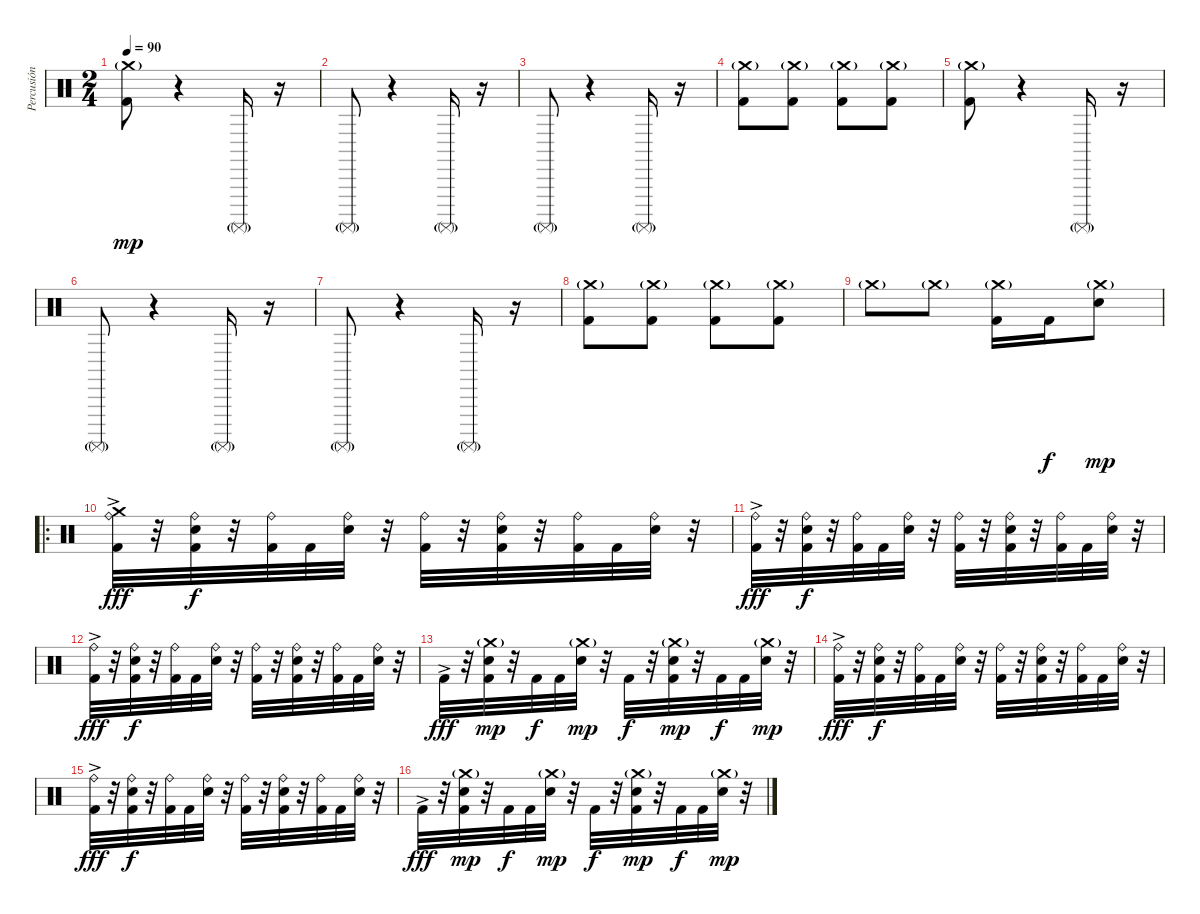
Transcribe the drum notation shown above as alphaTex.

\track ("Percusión" "Percusión") {instrument percussion}
\staff {score}
\articulation defaults
\ts (2 4)
\tempo 90
\clef neutral
\ks c
("Kick (hit) 2" "Crash medium (hit)"{g}).8{dy mp} r.4 "Surdo (mute)"{g}.16 r.16 |
"Surdo (mute)"{g}.8 r.4 "Surdo (mute)"{g}.16 r.16 |
"Surdo (mute)"{g}.8 r.4 "Surdo (mute)"{g}.16 r.16 |
("Crash medium (hit)"{g} "Kick (hit) 2").8 ("Crash medium (hit)"{g} "Kick (hit) 2").8 ("Crash medium (hit)"{g} "Kick (hit) 2").8 ("Crash medium (hit)"{g} "Kick (hit) 2").8 |
("Kick (hit) 2" "Crash medium (hit)"{g}).8 r.4 "Surdo (mute)"{g}.16 r.16 |
"Surdo (mute)"{g}.8 r.4 "Surdo (mute)"{g}.16 r.16 |
"Surdo (mute)"{g}.8 r.4 "Surdo (mute)"{g}.16 r.16 |
("Crash medium (hit)"{g} "Kick (hit) 2").8 ("Crash medium (hit)"{g} "Kick (hit) 2").8 ("Crash medium (hit)"{g} "Kick (hit) 2").8 ("Crash medium (hit)"{g} "Kick (hit) 2").8 |
"Crash medium (hit)"{g}.8 "Crash medium (hit)"{g}.8 ("Crash medium (hit)"{g} "Kick (hit) 2").16 "Kick (hit) 2".16{dy f} ("Crash medium (hit)"{g} "Electric Snare (hit)").8{dy mp} |
\ro
("Kick (hit) 2"{ac} "Crash medium (hit)" "Ride (bell)").32{dy fff} r.32 ("Kick (hit) 2" "Electric Snare (hit)" "Ride (bell)").32{dy f} r.32 ("Kick (hit) 2" "Ride (bell)").32 "Kick (hit) 2".32 ("Electric Snare (hit)" "Ride (bell)").32 r.32 ("Kick (hit) 2" "Ride (bell)").32 r.32 ("Kick (hit) 2" "Electric Snare (hit)" "Ride (bell)").32 r.32 ("Kick (hit) 2" "Ride (bell)").32 "Kick (hit) 2".32 ("Electric Snare (hit)" "Ride (bell)").32 r.32 |
("Kick (hit) 2"{ac} "Ride (bell)").32{dy fff} r.32 ("Kick (hit) 2" "Electric Snare (hit)" "Ride (bell)").32{dy f} r.32 ("Kick (hit) 2" "Ride (bell)").32 "Kick (hit) 2".32 ("Electric Snare (hit)" "Ride (bell)").32 r.32 ("Kick (hit) 2" "Ride (bell)").32 r.32 ("Kick (hit) 2" "Electric Snare (hit)" "Ride (bell)").32 r.32 ("Kick (hit) 2" "Ride (bell)").32 "Kick (hit) 2".32 ("Electric Snare (hit)" "Ride (bell)").32 r.32 |
("Kick (hit) 2"{ac} "Ride (bell)").32{dy fff} r.32 ("Kick (hit) 2" "Electric Snare (hit)" "Ride (bell)").32{dy f} r.32 ("Kick (hit) 2" "Ride (bell)").32 "Kick (hit) 2".32 ("Electric Snare (hit)" "Ride (bell)").32 r.32 ("Kick (hit) 2" "Ride (bell)").32 r.32 ("Kick (hit) 2" "Electric Snare (hit)" "Ride (bell)").32 r.32 ("Kick (hit) 2" "Ride (bell)").32 "Kick (hit) 2".32 ("Electric Snare (hit)" "Ride (bell)").32 r.32 |
"Kick (hit) 2"{ac}.32{dy fff} r.32 ("Kick (hit) 2" "Electric Snare (hit)" "Crash medium (hit)"{g}).32{dy mp} r.32 "Kick (hit) 2".32{dy f} "Kick (hit) 2".32 ("Electric Snare (hit)" "Crash medium (hit)"{g}).32{dy mp} r.32 "Kick (hit) 2".32{dy f} r.32 ("Kick (hit) 2" "Electric Snare (hit)" "Crash medium (hit)"{g}).32{dy mp} r.32 "Kick (hit) 2".32{dy f} "Kick (hit) 2".32 ("Electric Snare (hit)" "Crash medium (hit)"{g}).32{dy mp} r.32 |
("Kick (hit) 2"{ac} "Ride (bell)").32{dy fff} r.32 ("Kick (hit) 2" "Electric Snare (hit)" "Ride (bell)").32{dy f} r.32 ("Kick (hit) 2" "Ride (bell)").32 "Kick (hit) 2".32 ("Electric Snare (hit)" "Ride (bell)").32 r.32 ("Kick (hit) 2" "Ride (bell)").32 r.32 ("Kick (hit) 2" "Electric Snare (hit)" "Ride (bell)").32 r.32 ("Kick (hit) 2" "Ride (bell)").32 "Kick (hit) 2".32 ("Electric Snare (hit)" "Ride (bell)").32 r.32 |
("Kick (hit) 2"{ac} "Ride (bell)").32{dy fff} r.32 ("Kick (hit) 2" "Electric Snare (hit)" "Ride (bell)").32{dy f} r.32 ("Kick (hit) 2" "Ride (bell)").32 "Kick (hit) 2".32 ("Electric Snare (hit)" "Ride (bell)").32 r.32 ("Kick (hit) 2" "Ride (bell)").32 r.32 ("Kick (hit) 2" "Electric Snare (hit)" "Ride (bell)").32 r.32 ("Kick (hit) 2" "Ride (bell)").32 "Kick (hit) 2".32 ("Electric Snare (hit)" "Ride (bell)").32 r.32 |
"Kick (hit) 2"{ac}.32{dy fff} r.32 ("Kick (hit) 2" "Electric Snare (hit)" "Crash medium (hit)"{g}).32{dy mp} r.32 "Kick (hit) 2".32{dy f} "Kick (hit) 2".32 ("Electric Snare (hit)" "Crash medium (hit)"{g}).32{dy mp} r.32 "Kick (hit) 2".32{dy f} r.32 ("Kick (hit) 2" "Electric Snare (hit)" "Crash medium (hit)"{g}).32{dy mp} r.32 "Kick (hit) 2".32{dy f} "Kick (hit) 2".32 ("Electric Snare (hit)" "Crash medium (hit)"{g}).32{dy mp} r.32
